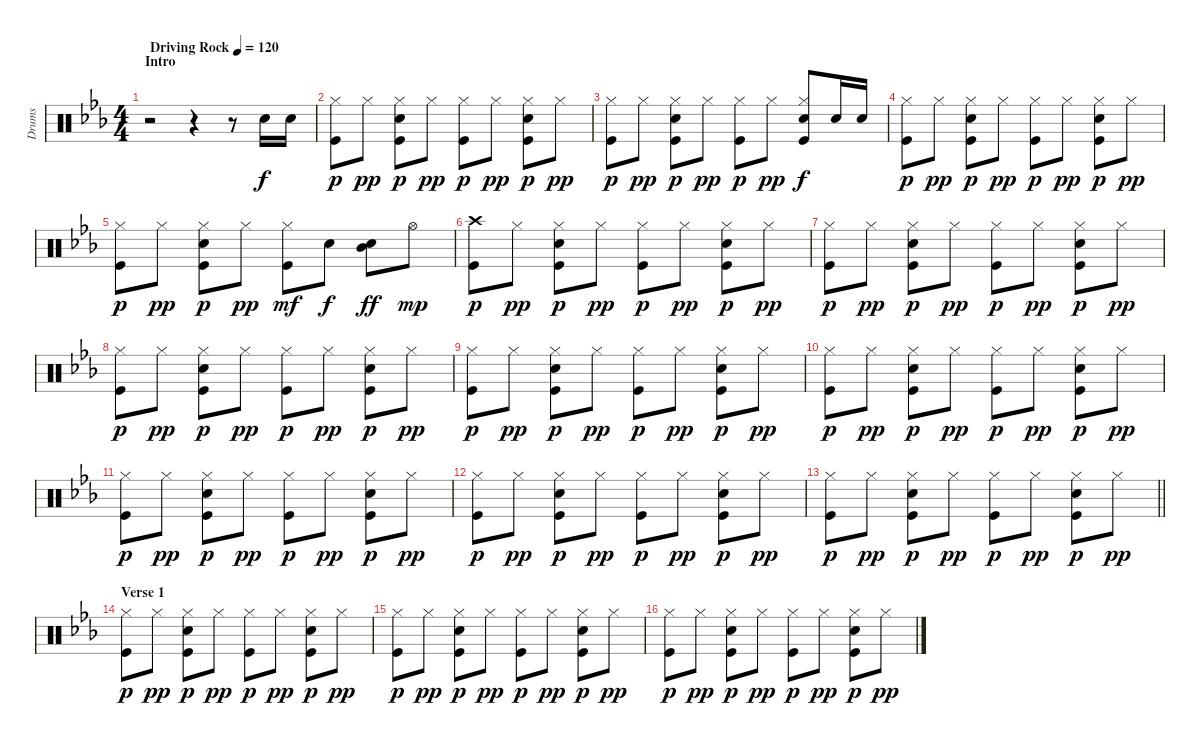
\track ("Drums" "Drums") {instrument percussion}
\staff {score}
\articulation defaults
\ts (4 4)
\section ("" "Intro")
\tempo (120 "Driving Rock")
\clef neutral
\ks cminor
r.2{dy f} r.4 r.8 "Electric Snare (hit)".16 "Electric Snare (hit)".16 |
("Hi-Hat (closed)" "Kick (hit)").8{dy p} "Hi-Hat (closed)".8{dy pp} ("Hi-Hat (closed)" "Electric Snare (hit)" "Kick (hit)").8{dy p} "Hi-Hat (closed)".8{dy pp} ("Hi-Hat (closed)" "Kick (hit)").8{dy p} "Hi-Hat (closed)".8{dy pp} ("Hi-Hat (closed)" "Electric Snare (hit)" "Kick (hit)").8{dy p} "Hi-Hat (closed)".8{dy pp} |
("Hi-Hat (closed)" "Kick (hit)").8{dy p} "Hi-Hat (closed)".8{dy pp} ("Hi-Hat (closed)" "Electric Snare (hit)" "Kick (hit)").8{dy p} "Hi-Hat (closed)".8{dy pp} ("Hi-Hat (closed)" "Kick (hit)").8{dy p} "Hi-Hat (closed)".8{dy pp} ("Hi-Hat (closed)" "Electric Snare (hit)" "Kick (hit)").8{dy f} "Electric Snare (hit)".16 "Electric Snare (hit)".16 |
("Hi-Hat (closed)" "Kick (hit)").8{dy p} "Hi-Hat (closed)".8{dy pp} ("Hi-Hat (closed)" "Electric Snare (hit)" "Kick (hit)").8{dy p} "Hi-Hat (closed)".8{dy pp} ("Hi-Hat (closed)" "Kick (hit)").8{dy p} "Hi-Hat (closed)".8{dy pp} ("Hi-Hat (closed)" "Electric Snare (hit)" "Kick (hit)").8{dy p} "Hi-Hat (closed)".8{dy pp} |
("Hi-Hat (closed)" "Kick (hit)").8{dy p} "Hi-Hat (closed)".8{dy pp} ("Hi-Hat (closed)" "Electric Snare (hit)" "Kick (hit)").8{dy p} "Hi-Hat (closed)".8{dy pp} ("Hi-Hat (closed)" "Kick (hit)").8{dy mf} "Electric Snare (hit)".8{dy f} ("Electric Snare (hit)" "Mid Tom (hit)").8{dy ff} "Hi-Hat (open)".8{dy mp} |
("Crash high (hit)" "Kick (hit)").8{dy p} "Hi-Hat (closed)".8{dy pp} ("Hi-Hat (closed)" "Electric Snare (hit)" "Kick (hit)").8{dy p} "Hi-Hat (closed)".8{dy pp} ("Hi-Hat (closed)" "Kick (hit)").8{dy p} "Hi-Hat (closed)".8{dy pp} ("Hi-Hat (closed)" "Electric Snare (hit)" "Kick (hit)").8{dy p} "Hi-Hat (closed)".8{dy pp} |
("Hi-Hat (closed)" "Kick (hit)").8{dy p} "Hi-Hat (closed)".8{dy pp} ("Hi-Hat (closed)" "Electric Snare (hit)" "Kick (hit)").8{dy p} "Hi-Hat (closed)".8{dy pp} ("Hi-Hat (closed)" "Kick (hit)").8{dy p} "Hi-Hat (closed)".8{dy pp} ("Hi-Hat (closed)" "Electric Snare (hit)" "Kick (hit)").8{dy p} "Hi-Hat (closed)".8{dy pp} |
("Hi-Hat (closed)" "Kick (hit)").8{dy p} "Hi-Hat (closed)".8{dy pp} ("Hi-Hat (closed)" "Electric Snare (hit)" "Kick (hit)").8{dy p} "Hi-Hat (closed)".8{dy pp} ("Hi-Hat (closed)" "Kick (hit)").8{dy p} "Hi-Hat (closed)".8{dy pp} ("Hi-Hat (closed)" "Electric Snare (hit)" "Kick (hit)").8{dy p} "Hi-Hat (closed)".8{dy pp} |
("Hi-Hat (closed)" "Kick (hit)").8{dy p} "Hi-Hat (closed)".8{dy pp} ("Hi-Hat (closed)" "Electric Snare (hit)" "Kick (hit)").8{dy p} "Hi-Hat (closed)".8{dy pp} ("Hi-Hat (closed)" "Kick (hit)").8{dy p} "Hi-Hat (closed)".8{dy pp} ("Hi-Hat (closed)" "Electric Snare (hit)" "Kick (hit)").8{dy p} "Hi-Hat (closed)".8{dy pp} |
("Hi-Hat (closed)" "Kick (hit)").8{dy p} "Hi-Hat (closed)".8{dy pp} ("Hi-Hat (closed)" "Electric Snare (hit)" "Kick (hit)").8{dy p} "Hi-Hat (closed)".8{dy pp} ("Hi-Hat (closed)" "Kick (hit)").8{dy p} "Hi-Hat (closed)".8{dy pp} ("Hi-Hat (closed)" "Electric Snare (hit)" "Kick (hit)").8{dy p} "Hi-Hat (closed)".8{dy pp} |
("Hi-Hat (closed)" "Kick (hit)").8{dy p} "Hi-Hat (closed)".8{dy pp} ("Hi-Hat (closed)" "Electric Snare (hit)" "Kick (hit)").8{dy p} "Hi-Hat (closed)".8{dy pp} ("Hi-Hat (closed)" "Kick (hit)").8{dy p} "Hi-Hat (closed)".8{dy pp} ("Hi-Hat (closed)" "Electric Snare (hit)" "Kick (hit)").8{dy p} "Hi-Hat (closed)".8{dy pp} |
("Hi-Hat (closed)" "Kick (hit)").8{dy p} "Hi-Hat (closed)".8{dy pp} ("Hi-Hat (closed)" "Electric Snare (hit)" "Kick (hit)").8{dy p} "Hi-Hat (closed)".8{dy pp} ("Hi-Hat (closed)" "Kick (hit)").8{dy p} "Hi-Hat (closed)".8{dy pp} ("Hi-Hat (closed)" "Electric Snare (hit)" "Kick (hit)").8{dy p} "Hi-Hat (closed)".8{dy pp} |
\barLineRight lightlight
("Hi-Hat (closed)" "Kick (hit)").8{dy p} "Hi-Hat (closed)".8{dy pp} ("Hi-Hat (closed)" "Electric Snare (hit)" "Kick (hit)").8{dy p} "Hi-Hat (closed)".8{dy pp} ("Hi-Hat (closed)" "Kick (hit)").8{dy p} "Hi-Hat (closed)".8{dy pp} ("Hi-Hat (closed)" "Electric Snare (hit)" "Kick (hit)").8{dy p} "Hi-Hat (closed)".8{dy pp} |
\section ("" "Verse 1")
("Hi-Hat (closed)" "Kick (hit)").8{dy p} "Hi-Hat (closed)".8{dy pp} ("Hi-Hat (closed)" "Electric Snare (hit)" "Kick (hit)").8{dy p} "Hi-Hat (closed)".8{dy pp} ("Hi-Hat (closed)" "Kick (hit)").8{dy p} "Hi-Hat (closed)".8{dy pp} ("Hi-Hat (closed)" "Electric Snare (hit)" "Kick (hit)").8{dy p} "Hi-Hat (closed)".8{dy pp} |
("Hi-Hat (closed)" "Kick (hit)").8{dy p} "Hi-Hat (closed)".8{dy pp} ("Hi-Hat (closed)" "Electric Snare (hit)" "Kick (hit)").8{dy p} "Hi-Hat (closed)".8{dy pp} ("Hi-Hat (closed)" "Kick (hit)").8{dy p} "Hi-Hat (closed)".8{dy pp} ("Hi-Hat (closed)" "Electric Snare (hit)" "Kick (hit)").8{dy p} "Hi-Hat (closed)".8{dy pp} |
("Hi-Hat (closed)" "Kick (hit)").8{dy p} "Hi-Hat (closed)".8{dy pp} ("Hi-Hat (closed)" "Electric Snare (hit)" "Kick (hit)").8{dy p} "Hi-Hat (closed)".8{dy pp} ("Hi-Hat (closed)" "Kick (hit)").8{dy p} "Hi-Hat (closed)".8{dy pp} ("Hi-Hat (closed)" "Electric Snare (hit)" "Kick (hit)").8{dy p} "Hi-Hat (closed)".8{dy pp}
